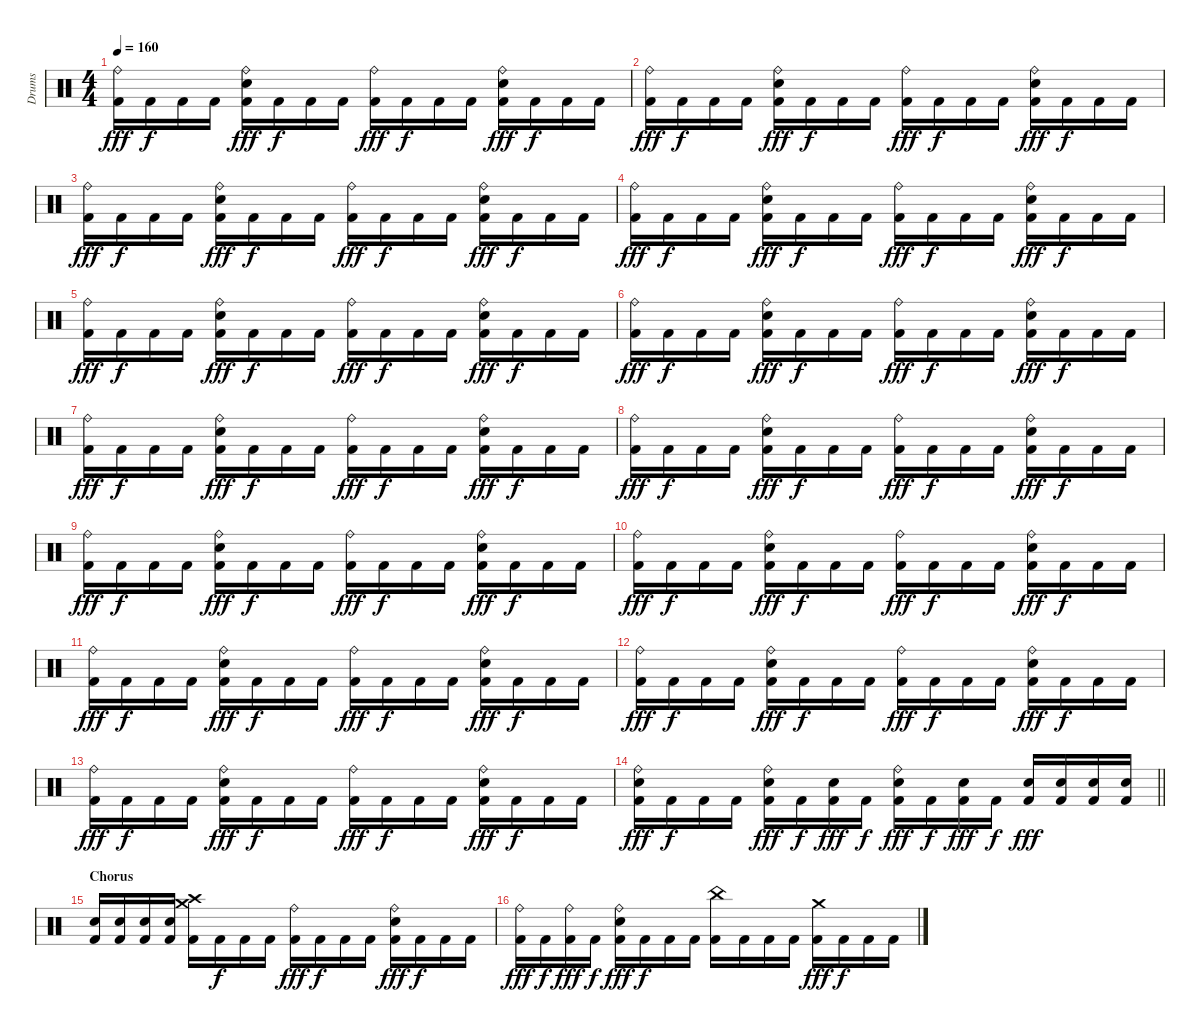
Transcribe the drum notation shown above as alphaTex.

\track ("Drums" "Drums") {instrument percussion}
\staff {score}
\articulation defaults
\ts (4 4)
\tempo 160
\clef neutral
\ks c
("Ride (bell)" "Kick (hit) 2").16{dy fff} "Kick (hit) 2".16{dy f} "Kick (hit) 2".16 "Kick (hit) 2".16 ("Ride (bell)" "Electric Snare (hit)" "Kick (hit) 2").16{dy fff} "Kick (hit) 2".16{dy f} "Kick (hit) 2".16 "Kick (hit) 2".16 ("Ride (bell)" "Kick (hit) 2").16{dy fff} "Kick (hit) 2".16{dy f} "Kick (hit) 2".16 "Kick (hit) 2".16 ("Ride (bell)" "Electric Snare (hit)" "Kick (hit) 2").16{dy fff} "Kick (hit) 2".16{dy f} "Kick (hit) 2".16 "Kick (hit) 2".16 |
("Ride (bell)" "Kick (hit) 2").16{dy fff} "Kick (hit) 2".16{dy f} "Kick (hit) 2".16 "Kick (hit) 2".16 ("Ride (bell)" "Electric Snare (hit)" "Kick (hit) 2").16{dy fff} "Kick (hit) 2".16{dy f} "Kick (hit) 2".16 "Kick (hit) 2".16 ("Ride (bell)" "Kick (hit) 2").16{dy fff} "Kick (hit) 2".16{dy f} "Kick (hit) 2".16 "Kick (hit) 2".16 ("Ride (bell)" "Electric Snare (hit)" "Kick (hit) 2").16{dy fff} "Kick (hit) 2".16{dy f} "Kick (hit) 2".16 "Kick (hit) 2".16 |
("Ride (bell)" "Kick (hit) 2").16{dy fff} "Kick (hit) 2".16{dy f} "Kick (hit) 2".16 "Kick (hit) 2".16 ("Ride (bell)" "Electric Snare (hit)" "Kick (hit) 2").16{dy fff} "Kick (hit) 2".16{dy f} "Kick (hit) 2".16 "Kick (hit) 2".16 ("Ride (bell)" "Kick (hit) 2").16{dy fff} "Kick (hit) 2".16{dy f} "Kick (hit) 2".16 "Kick (hit) 2".16 ("Ride (bell)" "Electric Snare (hit)" "Kick (hit) 2").16{dy fff} "Kick (hit) 2".16{dy f} "Kick (hit) 2".16 "Kick (hit) 2".16 |
("Ride (bell)" "Kick (hit) 2").16{dy fff} "Kick (hit) 2".16{dy f} "Kick (hit) 2".16 "Kick (hit) 2".16 ("Ride (bell)" "Electric Snare (hit)" "Kick (hit) 2").16{dy fff} "Kick (hit) 2".16{dy f} "Kick (hit) 2".16 "Kick (hit) 2".16 ("Ride (bell)" "Kick (hit) 2").16{dy fff} "Kick (hit) 2".16{dy f} "Kick (hit) 2".16 "Kick (hit) 2".16 ("Ride (bell)" "Electric Snare (hit)" "Kick (hit) 2").16{dy fff} "Kick (hit) 2".16{dy f} "Kick (hit) 2".16 "Kick (hit) 2".16 |
("Ride (bell)" "Kick (hit) 2").16{dy fff} "Kick (hit) 2".16{dy f} "Kick (hit) 2".16 "Kick (hit) 2".16 ("Ride (bell)" "Electric Snare (hit)" "Kick (hit) 2").16{dy fff} "Kick (hit) 2".16{dy f} "Kick (hit) 2".16 "Kick (hit) 2".16 ("Ride (bell)" "Kick (hit) 2").16{dy fff} "Kick (hit) 2".16{dy f} "Kick (hit) 2".16 "Kick (hit) 2".16 ("Ride (bell)" "Electric Snare (hit)" "Kick (hit) 2").16{dy fff} "Kick (hit) 2".16{dy f} "Kick (hit) 2".16 "Kick (hit) 2".16 |
("Ride (bell)" "Kick (hit) 2").16{dy fff} "Kick (hit) 2".16{dy f} "Kick (hit) 2".16 "Kick (hit) 2".16 ("Ride (bell)" "Electric Snare (hit)" "Kick (hit) 2").16{dy fff} "Kick (hit) 2".16{dy f} "Kick (hit) 2".16 "Kick (hit) 2".16 ("Ride (bell)" "Kick (hit) 2").16{dy fff} "Kick (hit) 2".16{dy f} "Kick (hit) 2".16 "Kick (hit) 2".16 ("Ride (bell)" "Electric Snare (hit)" "Kick (hit) 2").16{dy fff} "Kick (hit) 2".16{dy f} "Kick (hit) 2".16 "Kick (hit) 2".16 |
("Ride (bell)" "Kick (hit) 2").16{dy fff} "Kick (hit) 2".16{dy f} "Kick (hit) 2".16 "Kick (hit) 2".16 ("Ride (bell)" "Electric Snare (hit)" "Kick (hit) 2").16{dy fff} "Kick (hit) 2".16{dy f} "Kick (hit) 2".16 "Kick (hit) 2".16 ("Ride (bell)" "Kick (hit) 2").16{dy fff} "Kick (hit) 2".16{dy f} "Kick (hit) 2".16 "Kick (hit) 2".16 ("Ride (bell)" "Electric Snare (hit)" "Kick (hit) 2").16{dy fff} "Kick (hit) 2".16{dy f} "Kick (hit) 2".16 "Kick (hit) 2".16 |
("Ride (bell)" "Kick (hit) 2").16{dy fff} "Kick (hit) 2".16{dy f} "Kick (hit) 2".16 "Kick (hit) 2".16 ("Ride (bell)" "Electric Snare (hit)" "Kick (hit) 2").16{dy fff} "Kick (hit) 2".16{dy f} "Kick (hit) 2".16 "Kick (hit) 2".16 ("Ride (bell)" "Kick (hit) 2").16{dy fff} "Kick (hit) 2".16{dy f} "Kick (hit) 2".16 "Kick (hit) 2".16 ("Ride (bell)" "Electric Snare (hit)" "Kick (hit) 2").16{dy fff} "Kick (hit) 2".16{dy f} "Kick (hit) 2".16 "Kick (hit) 2".16 |
("Ride (bell)" "Kick (hit) 2").16{dy fff} "Kick (hit) 2".16{dy f} "Kick (hit) 2".16 "Kick (hit) 2".16 ("Ride (bell)" "Electric Snare (hit)" "Kick (hit) 2").16{dy fff} "Kick (hit) 2".16{dy f} "Kick (hit) 2".16 "Kick (hit) 2".16 ("Ride (bell)" "Kick (hit) 2").16{dy fff} "Kick (hit) 2".16{dy f} "Kick (hit) 2".16 "Kick (hit) 2".16 ("Ride (bell)" "Electric Snare (hit)" "Kick (hit) 2").16{dy fff} "Kick (hit) 2".16{dy f} "Kick (hit) 2".16 "Kick (hit) 2".16 |
("Ride (bell)" "Kick (hit) 2").16{dy fff} "Kick (hit) 2".16{dy f} "Kick (hit) 2".16 "Kick (hit) 2".16 ("Ride (bell)" "Electric Snare (hit)" "Kick (hit) 2").16{dy fff} "Kick (hit) 2".16{dy f} "Kick (hit) 2".16 "Kick (hit) 2".16 ("Ride (bell)" "Kick (hit) 2").16{dy fff} "Kick (hit) 2".16{dy f} "Kick (hit) 2".16 "Kick (hit) 2".16 ("Ride (bell)" "Electric Snare (hit)" "Kick (hit) 2").16{dy fff} "Kick (hit) 2".16{dy f} "Kick (hit) 2".16 "Kick (hit) 2".16 |
("Ride (bell)" "Kick (hit) 2").16{dy fff} "Kick (hit) 2".16{dy f} "Kick (hit) 2".16 "Kick (hit) 2".16 ("Ride (bell)" "Electric Snare (hit)" "Kick (hit) 2").16{dy fff} "Kick (hit) 2".16{dy f} "Kick (hit) 2".16 "Kick (hit) 2".16 ("Ride (bell)" "Kick (hit) 2").16{dy fff} "Kick (hit) 2".16{dy f} "Kick (hit) 2".16 "Kick (hit) 2".16 ("Ride (bell)" "Electric Snare (hit)" "Kick (hit) 2").16{dy fff} "Kick (hit) 2".16{dy f} "Kick (hit) 2".16 "Kick (hit) 2".16 |
("Ride (bell)" "Kick (hit) 2").16{dy fff} "Kick (hit) 2".16{dy f} "Kick (hit) 2".16 "Kick (hit) 2".16 ("Ride (bell)" "Electric Snare (hit)" "Kick (hit) 2").16{dy fff} "Kick (hit) 2".16{dy f} "Kick (hit) 2".16 "Kick (hit) 2".16 ("Ride (bell)" "Kick (hit) 2").16{dy fff} "Kick (hit) 2".16{dy f} "Kick (hit) 2".16 "Kick (hit) 2".16 ("Ride (bell)" "Electric Snare (hit)" "Kick (hit) 2").16{dy fff} "Kick (hit) 2".16{dy f} "Kick (hit) 2".16 "Kick (hit) 2".16 |
("Ride (bell)" "Kick (hit) 2").16{dy fff} "Kick (hit) 2".16{dy f} "Kick (hit) 2".16 "Kick (hit) 2".16 ("Ride (bell)" "Electric Snare (hit)" "Kick (hit) 2").16{dy fff} "Kick (hit) 2".16{dy f} "Kick (hit) 2".16 "Kick (hit) 2".16 ("Ride (bell)" "Kick (hit) 2").16{dy fff} "Kick (hit) 2".16{dy f} "Kick (hit) 2".16 "Kick (hit) 2".16 ("Ride (bell)" "Electric Snare (hit)" "Kick (hit) 2").16{dy fff} "Kick (hit) 2".16{dy f} "Kick (hit) 2".16 "Kick (hit) 2".16 |
\barLineRight lightlight
("Ride (bell)" "Electric Snare (hit)" "Kick (hit) 2").16{dy fff} "Kick (hit) 2".16{dy f} "Kick (hit) 2".16 "Kick (hit) 2".16 ("Ride (bell)" "Electric Snare (hit)" "Kick (hit) 2").16{dy fff} "Kick (hit) 2".16{dy f} ("Electric Snare (hit)" "Kick (hit) 2").16{dy fff} "Kick (hit) 2".16{dy f} ("Ride (bell)" "Electric Snare (hit)" "Kick (hit) 2").16{dy fff} "Kick (hit) 2".16{dy f} ("Electric Snare (hit)" "Kick (hit) 2").16{dy fff} "Kick (hit) 2".16{dy f} ("Electric Snare (hit)" "Kick (hit) 2").16{dy fff} ("Electric Snare (hit)" "Kick (hit) 2").16 ("Electric Snare (hit)" "Kick (hit) 2").16 ("Electric Snare (hit)" "Kick (hit) 2").16 |
\section ("" "Chorus")
("Electric Snare (hit)" "Kick (hit) 2").16 ("Electric Snare (hit)" "Kick (hit) 2").16 ("Electric Snare (hit)" "Kick (hit) 2").16 ("Electric Snare (hit)" "Kick (hit) 2").16 ("Crash high (hit)" "Crash medium (hit)" "Kick (hit) 2").16 "Kick (hit) 2".16{dy f} "Kick (hit) 2".16 "Kick (hit) 2".16 ("Ride (bell)" "Kick (hit) 2").16{dy fff} "Kick (hit) 2".16{dy f} "Kick (hit) 2".16 "Kick (hit) 2".16 ("Ride (bell)" "Electric Snare (hit)" "Kick (hit) 2").16{dy fff} "Kick (hit) 2".16{dy f} "Kick (hit) 2".16 "Kick (hit) 2".16 |
("Ride (bell)" "Kick (hit) 2").16{dy fff} "Kick (hit) 2".16{dy f} ("Ride (bell)" "Kick (hit) 2").16{dy fff} "Kick (hit) 2".16{dy f} ("Ride (bell)" "Electric Snare (hit)" "Kick (hit) 2").16{dy fff} "Kick (hit) 2".16{dy f} "Kick (hit) 2".16 "Kick (hit) 2".16 ("China (hit)" "Kick (hit) 2").16 "Kick (hit) 2".16 "Kick (hit) 2".16 "Kick (hit) 2".16 ("Crash medium (hit)" "Kick (hit) 2").16{dy fff} "Kick (hit) 2".16{dy f} "Kick (hit) 2".16 "Kick (hit) 2".16
